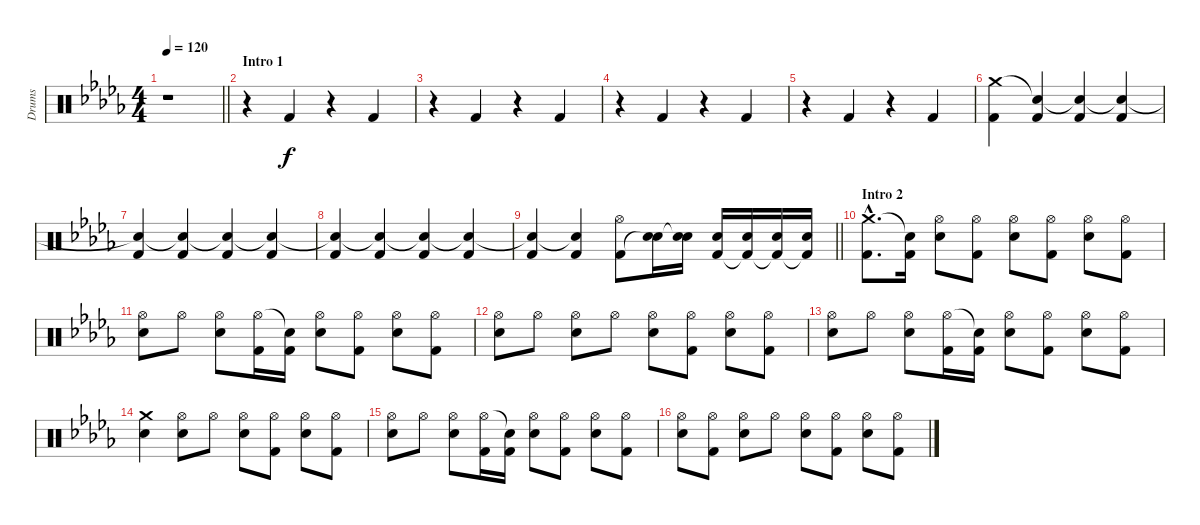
\track ("Drums" "Drums") {instrument percussion}
\staff {score}
\articulation defaults
\ts (4 4)
\tempo 120
\clef neutral
\barLineRight lightlight
\ks db
r.1{dy f} |
\section ("" "Intro 1")
r.4 "Kick (hit) 2".4 r.4 "Kick (hit) 2".4 |
r.4 "Kick (hit) 2".4 r.4 "Kick (hit) 2".4 |
r.4 "Kick (hit) 2".4 r.4 "Kick (hit) 2".4 |
r.4 "Kick (hit) 2".4 r.4 "Kick (hit) 2".4 |
("Crash medium (hit)" "Kick (hit) 2").4 ("Snare (hit)"{t} "Kick (hit) 2").4 ("Snare (hit)"{t} "Kick (hit) 2").4 ("Snare (hit)"{t} "Kick (hit) 2").4 |
("Snare (hit)"{t} "Kick (hit) 2").4 ("Snare (hit)"{t} "Kick (hit) 2").4 ("Snare (hit)"{t} "Kick (hit) 2").4 ("Snare (hit)"{t} "Kick (hit) 2").4 |
("Snare (hit)"{t} "Kick (hit) 2").4 ("Snare (hit)"{t} "Kick (hit) 2").4 ("Snare (hit)"{t} "Kick (hit) 2").4 ("Snare (hit)"{t} "Kick (hit) 2").4 |
\barLineRight lightlight
("Snare (hit)"{t} "Kick (hit) 2").4 ("Snare (hit)"{t} "Kick (hit) 2").4 ("Hi-Hat (open)" "Kick (hit) 2").8 ("Electric Snare (hit)" "Snare (hit)"{t}).16 ("Electric Snare (hit)" "Snare (hit)"{t}).16 ("Electric Snare (hit)" "Kick (hit) 2").16 ("Electric Snare (hit)" "Kick (hit) 2"{t}).16 ("Electric Snare (hit)" "Kick (hit) 2"{t}).16 ("Electric Snare (hit)" "Kick (hit) 2"{t}).16 |
\section ("" "Intro 2")
("Crash medium (hit)"{hac} "Kick (hit) 2"{hac}).8{d} ("Snare (hit)"{t} "Kick (hit) 2").16 ("Hi-Hat (open)" "Electric Snare (hit)").8 ("Hi-Hat (open)" "Kick (hit) 2").8 ("Hi-Hat (open)" "Electric Snare (hit)").8 ("Hi-Hat (open)" "Kick (hit) 2").8 ("Hi-Hat (open)" "Electric Snare (hit)").8 ("Hi-Hat (open)" "Kick (hit) 2").8 |
("Hi-Hat (open)" "Electric Snare (hit)").8 "Hi-Hat (open)".8 ("Hi-Hat (open)" "Electric Snare (hit)").8 ("Hi-Hat (open)" "Kick (hit) 2").16 ("Snare (hit)"{t} "Kick (hit) 2").16 ("Hi-Hat (open)" "Electric Snare (hit)").8 ("Hi-Hat (open)" "Kick (hit) 2").8 ("Hi-Hat (open)" "Electric Snare (hit)").8 ("Hi-Hat (open)" "Kick (hit) 2").8 |
("Hi-Hat (open)" "Electric Snare (hit)").8 "Hi-Hat (open)".8 ("Hi-Hat (open)" "Electric Snare (hit)").8 "Hi-Hat (open)".8 ("Hi-Hat (open)" "Electric Snare (hit)").8 ("Hi-Hat (open)" "Kick (hit) 2").8 ("Hi-Hat (open)" "Electric Snare (hit)").8 ("Hi-Hat (open)" "Kick (hit) 2").8 |
("Hi-Hat (open)" "Electric Snare (hit)").8 "Hi-Hat (open)".8 ("Hi-Hat (open)" "Electric Snare (hit)").8 ("Hi-Hat (open)" "Kick (hit) 2").16 ("Snare (hit)"{t} "Kick (hit) 2").16 ("Hi-Hat (open)" "Electric Snare (hit)").8 ("Hi-Hat (open)" "Kick (hit) 2").8 ("Hi-Hat (open)" "Electric Snare (hit)").8 ("Hi-Hat (open)" "Kick (hit) 2").8 |
("Crash medium (hit)" "Electric Snare (hit)").4 ("Hi-Hat (open)" "Electric Snare (hit)").8 "Hi-Hat (open)".8 ("Hi-Hat (open)" "Electric Snare (hit)").8 ("Hi-Hat (open)" "Kick (hit) 2").8 ("Hi-Hat (open)" "Electric Snare (hit)").8 ("Hi-Hat (open)" "Kick (hit) 2").8 |
("Hi-Hat (open)" "Electric Snare (hit)").8 "Hi-Hat (open)".8 ("Hi-Hat (open)" "Electric Snare (hit)").8 ("Hi-Hat (open)" "Kick (hit) 2").16 ("Snare (hit)"{t} "Kick (hit) 2").16 ("Hi-Hat (open)" "Electric Snare (hit)").8 ("Hi-Hat (open)" "Kick (hit) 2").8 ("Hi-Hat (open)" "Electric Snare (hit)").8 ("Hi-Hat (open)" "Kick (hit) 2").8 |
("Hi-Hat (open)" "Electric Snare (hit)").8 ("Hi-Hat (open)" "Kick (hit) 2").8 ("Hi-Hat (open)" "Electric Snare (hit)").8 "Hi-Hat (open)".8 ("Hi-Hat (open)" "Electric Snare (hit)").8 ("Hi-Hat (open)" "Kick (hit) 2").8 ("Hi-Hat (open)" "Electric Snare (hit)").8 ("Hi-Hat (open)" "Kick (hit) 2").8
